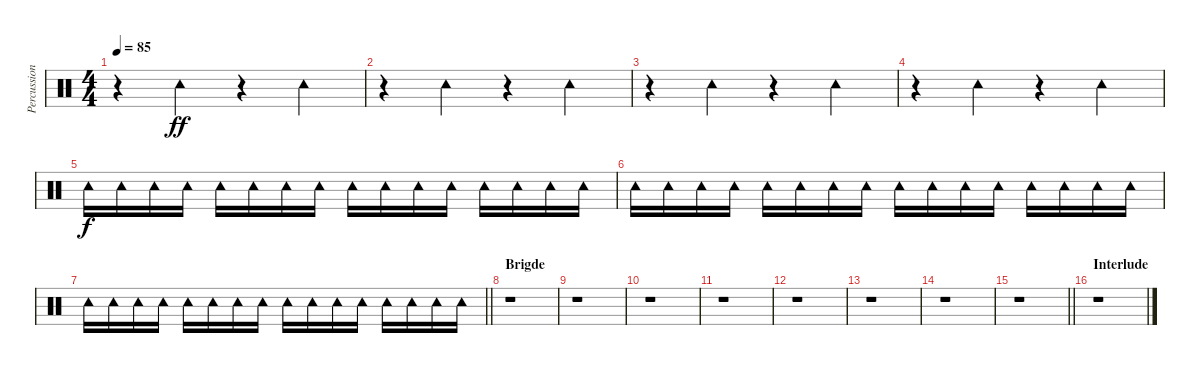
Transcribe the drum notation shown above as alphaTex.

\track ("Percussions" "Percussion") {instrument percussion}
\staff {score}
\articulation defaults
\ts (4 4)
\tempo 85
\clef neutral
\ks c
r.4{dy ff} "Tambourine (hit)".4 r.4 "Tambourine (hit)".4 |
r.4 "Tambourine (hit)".4 r.4 "Tambourine (hit)".4 |
r.4 "Tambourine (hit)".4 r.4 "Tambourine (hit)".4 |
r.4 "Tambourine (hit)".4 r.4 "Tambourine (hit)".4 |
"Tambourine (hit)".16{dy f} "Tambourine (hit)".16 "Tambourine (hit)".16 "Tambourine (hit)".16 "Tambourine (hit)".16 "Tambourine (hit)".16 "Tambourine (hit)".16 "Tambourine (hit)".16 "Tambourine (hit)".16 "Tambourine (hit)".16 "Tambourine (hit)".16 "Tambourine (hit)".16 "Tambourine (hit)".16 "Tambourine (hit)".16 "Tambourine (hit)".16 "Tambourine (hit)".16 |
"Tambourine (hit)".16 "Tambourine (hit)".16 "Tambourine (hit)".16 "Tambourine (hit)".16 "Tambourine (hit)".16 "Tambourine (hit)".16 "Tambourine (hit)".16 "Tambourine (hit)".16 "Tambourine (hit)".16 "Tambourine (hit)".16 "Tambourine (hit)".16 "Tambourine (hit)".16 "Tambourine (hit)".16 "Tambourine (hit)".16 "Tambourine (hit)".16 "Tambourine (hit)".16 |
\barLineRight lightlight "Tambourine (hit)".16 "Tambourine (hit)".16 "Tambourine (hit)".16 "Tambourine (hit)".16 "Tambourine (hit)".16 "Tambourine (hit)".16 "Tambourine (hit)".16 "Tambourine (hit)".16 "Tambourine (hit)".16 "Tambourine (hit)".16 "Tambourine (hit)".16 "Tambourine (hit)".16 "Tambourine (hit)".16 "Tambourine (hit)".16 "Tambourine (hit)".16 "Tambourine (hit)".16
|
\section ("" "Brigde")
r.1 |
r.1 |
r.1 |
r.1 |
r.1 |
r.1 |
r.1 |
\barLineRight lightlight
r.1 |
\section ("" "Interlude")
r.1
